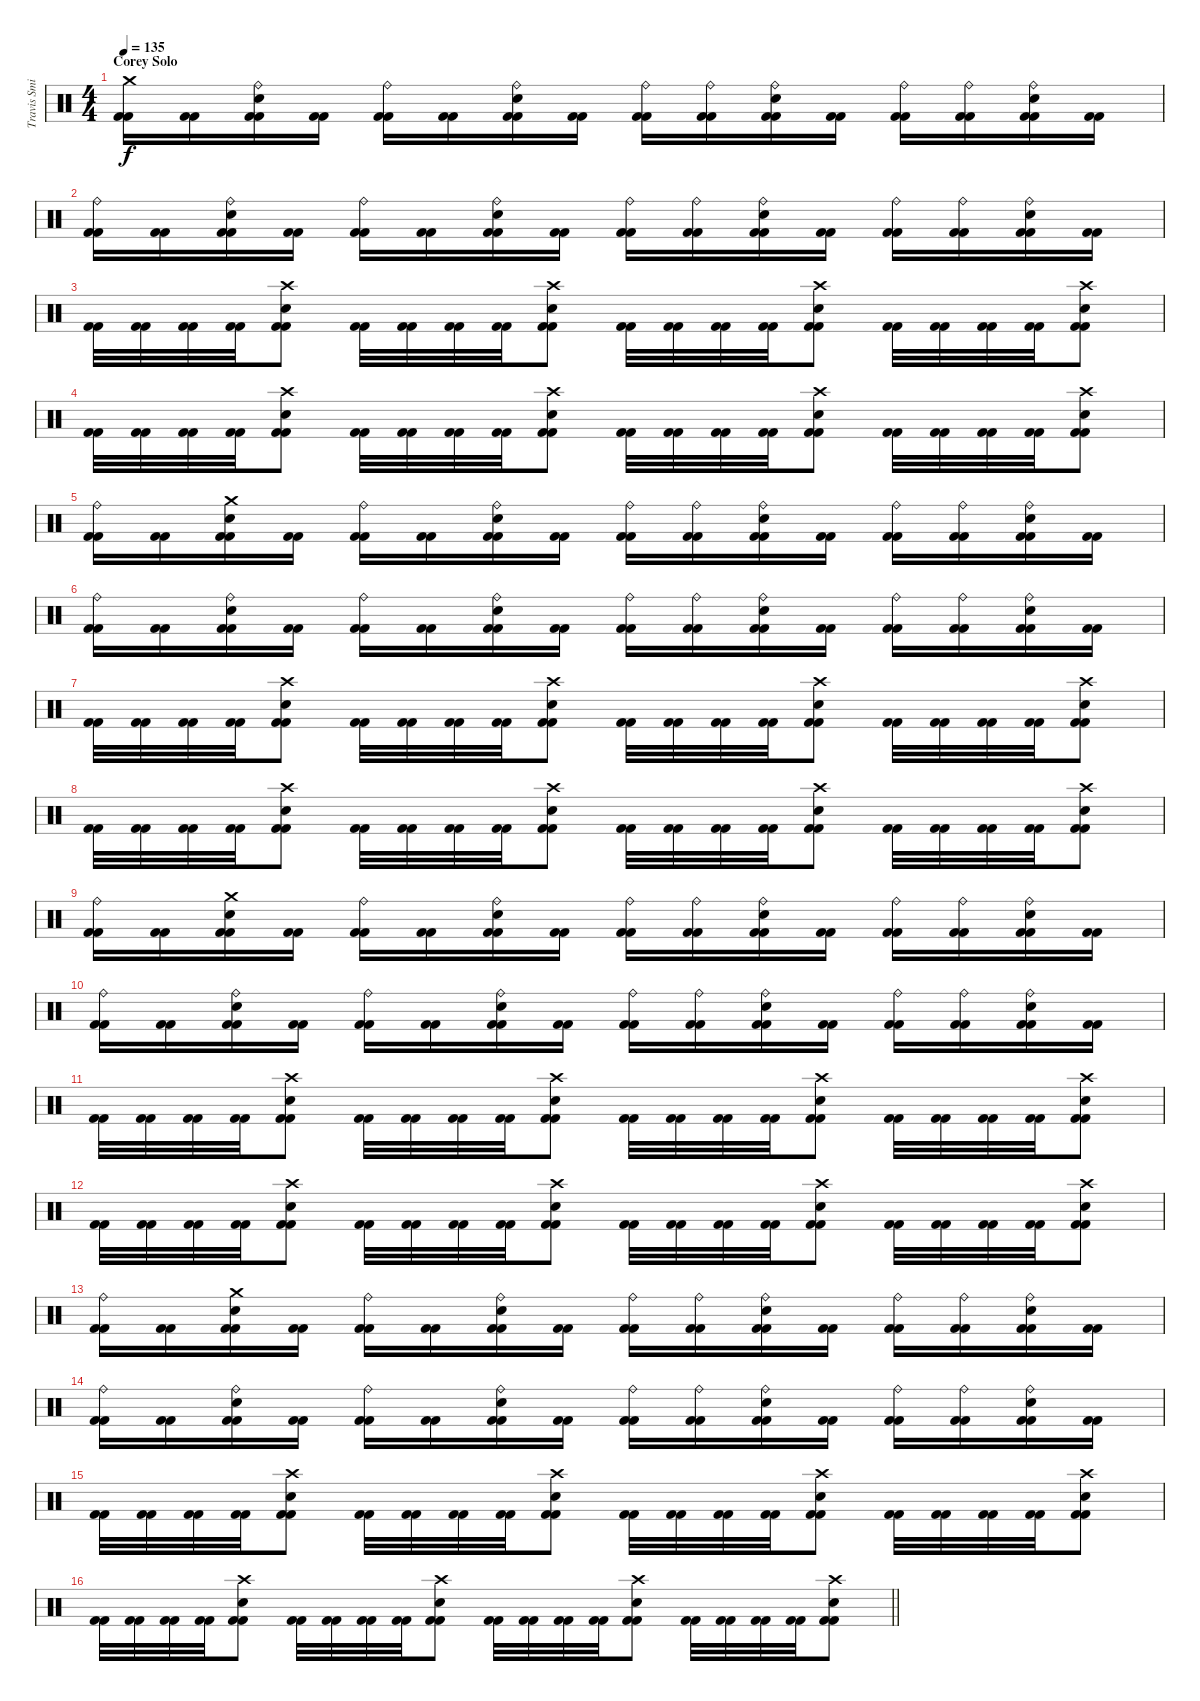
\track ("Travis Smith" "Travis Smi") {instrument percussion}
\staff {score}
\articulation defaults
\ts (4 4)
\section ("" "Corey Solo")
\tempo 135
\clef neutral
\ks c
("Crash medium (hit)" "Kick (hit) 2" "Kick (hit) 2").16{dy f} ("Kick (hit) 2" "Kick (hit) 2").16 ("Ride (bell)" "Electric Snare (hit)" "Kick (hit) 2" "Kick (hit) 2").16 ("Kick (hit) 2" "Kick (hit) 2").16 ("Ride (bell)" "Kick (hit) 2" "Kick (hit) 2").16 ("Kick (hit) 2" "Kick (hit) 2").16 ("Ride (bell)" "Electric Snare (hit)" "Kick (hit) 2" "Kick (hit) 2").16 ("Kick (hit) 2" "Kick (hit) 2").16 ("Ride (bell)" "Kick (hit) 2" "Kick (hit) 2").16 ("Ride (bell)" "Kick (hit) 2" "Kick (hit) 2").16 ("Ride (bell)" "Electric Snare (hit)" "Kick (hit) 2" "Kick (hit) 2").16 ("Kick (hit) 2" "Kick (hit) 2").16 ("Ride (bell)" "Kick (hit) 2" "Kick (hit) 2").16 ("Ride (bell)" "Kick (hit) 2" "Kick (hit) 2").16 ("Ride (bell)" "Electric Snare (hit)" "Kick (hit) 2" "Kick (hit) 2").16 ("Kick (hit) 2" "Kick (hit) 2").16 |
("Ride (bell)" "Kick (hit) 2" "Kick (hit) 2").16 ("Kick (hit) 2" "Kick (hit) 2").16 ("Ride (bell)" "Electric Snare (hit)" "Kick (hit) 2" "Kick (hit) 2").16 ("Kick (hit) 2" "Kick (hit) 2").16 ("Ride (bell)" "Kick (hit) 2" "Kick (hit) 2").16 ("Kick (hit) 2" "Kick (hit) 2").16 ("Ride (bell)" "Electric Snare (hit)" "Kick (hit) 2" "Kick (hit) 2").16 ("Kick (hit) 2" "Kick (hit) 2").16 ("Ride (bell)" "Kick (hit) 2" "Kick (hit) 2").16 ("Ride (bell)" "Kick (hit) 2" "Kick (hit) 2").16 ("Ride (bell)" "Electric Snare (hit)" "Kick (hit) 2" "Kick (hit) 2").16 ("Kick (hit) 2" "Kick (hit) 2").16 ("Ride (bell)" "Kick (hit) 2" "Kick (hit) 2").16 ("Ride (bell)" "Kick (hit) 2" "Kick (hit) 2").16 ("Ride (bell)" "Electric Snare (hit)" "Kick (hit) 2" "Kick (hit) 2").16 ("Kick (hit) 2" "Kick (hit) 2").16 |
("Kick (hit) 2" "Kick (hit) 2").32 ("Kick (hit) 2" "Kick (hit) 2").32 ("Kick (hit) 2" "Kick (hit) 2").32 ("Kick (hit) 2" "Kick (hit) 2").32 ("Crash high (hit)" "Electric Snare (hit)" "Kick (hit) 2" "Kick (hit) 2").8 ("Kick (hit) 2" "Kick (hit) 2").32 ("Kick (hit) 2" "Kick (hit) 2").32 ("Kick (hit) 2" "Kick (hit) 2").32 ("Kick (hit) 2" "Kick (hit) 2").32 ("Crash high (hit)" "Electric Snare (hit)" "Kick (hit) 2" "Kick (hit) 2").8 ("Kick (hit) 2" "Kick (hit) 2").32 ("Kick (hit) 2" "Kick (hit) 2").32 ("Kick (hit) 2" "Kick (hit) 2").32 ("Kick (hit) 2" "Kick (hit) 2").32 ("Crash high (hit)" "Electric Snare (hit)" "Kick (hit) 2" "Kick (hit) 2").8 ("Kick (hit) 2" "Kick (hit) 2").32 ("Kick (hit) 2" "Kick (hit) 2").32 ("Kick (hit) 2" "Kick (hit) 2").32 ("Kick (hit) 2" "Kick (hit) 2").32 ("Crash high (hit)" "Electric Snare (hit)" "Kick (hit) 2" "Kick (hit) 2").8 |
("Kick (hit) 2" "Kick (hit) 2").32 ("Kick (hit) 2" "Kick (hit) 2").32 ("Kick (hit) 2" "Kick (hit) 2").32 ("Kick (hit) 2" "Kick (hit) 2").32 ("Crash high (hit)" "Electric Snare (hit)" "Kick (hit) 2" "Kick (hit) 2").8 ("Kick (hit) 2" "Kick (hit) 2").32 ("Kick (hit) 2" "Kick (hit) 2").32 ("Kick (hit) 2" "Kick (hit) 2").32 ("Kick (hit) 2" "Kick (hit) 2").32 ("Crash high (hit)" "Electric Snare (hit)" "Kick (hit) 2" "Kick (hit) 2").8 ("Kick (hit) 2" "Kick (hit) 2").32 ("Kick (hit) 2" "Kick (hit) 2").32 ("Kick (hit) 2" "Kick (hit) 2").32 ("Kick (hit) 2" "Kick (hit) 2").32 ("Crash high (hit)" "Electric Snare (hit)" "Kick (hit) 2" "Kick (hit) 2").8 ("Kick (hit) 2" "Kick (hit) 2").32 ("Kick (hit) 2" "Kick (hit) 2").32 ("Kick (hit) 2" "Kick (hit) 2").32 ("Kick (hit) 2" "Kick (hit) 2").32 ("Crash high (hit)" "Electric Snare (hit)" "Kick (hit) 2" "Kick (hit) 2").8 |
("Ride (bell)" "Kick (hit) 2" "Kick (hit) 2").16 ("Kick (hit) 2" "Kick (hit) 2").16 ("Crash medium (hit)" "Electric Snare (hit)" "Kick (hit) 2" "Kick (hit) 2").16 ("Kick (hit) 2" "Kick (hit) 2").16 ("Ride (bell)" "Kick (hit) 2" "Kick (hit) 2").16 ("Kick (hit) 2" "Kick (hit) 2").16 ("Ride (bell)" "Electric Snare (hit)" "Kick (hit) 2" "Kick (hit) 2").16 ("Kick (hit) 2" "Kick (hit) 2").16 ("Ride (bell)" "Kick (hit) 2" "Kick (hit) 2").16 ("Ride (bell)" "Kick (hit) 2" "Kick (hit) 2").16 ("Ride (bell)" "Electric Snare (hit)" "Kick (hit) 2" "Kick (hit) 2").16 ("Kick (hit) 2" "Kick (hit) 2").16 ("Ride (bell)" "Kick (hit) 2" "Kick (hit) 2").16 ("Ride (bell)" "Kick (hit) 2" "Kick (hit) 2").16 ("Ride (bell)" "Electric Snare (hit)" "Kick (hit) 2" "Kick (hit) 2").16 ("Kick (hit) 2" "Kick (hit) 2").16 |
("Ride (bell)" "Kick (hit) 2" "Kick (hit) 2").16 ("Kick (hit) 2" "Kick (hit) 2").16 ("Ride (bell)" "Electric Snare (hit)" "Kick (hit) 2" "Kick (hit) 2").16 ("Kick (hit) 2" "Kick (hit) 2").16 ("Ride (bell)" "Kick (hit) 2" "Kick (hit) 2").16 ("Kick (hit) 2" "Kick (hit) 2").16 ("Ride (bell)" "Electric Snare (hit)" "Kick (hit) 2" "Kick (hit) 2").16 ("Kick (hit) 2" "Kick (hit) 2").16 ("Ride (bell)" "Kick (hit) 2" "Kick (hit) 2").16 ("Ride (bell)" "Kick (hit) 2" "Kick (hit) 2").16 ("Ride (bell)" "Electric Snare (hit)" "Kick (hit) 2" "Kick (hit) 2").16 ("Kick (hit) 2" "Kick (hit) 2").16 ("Ride (bell)" "Kick (hit) 2" "Kick (hit) 2").16 ("Ride (bell)" "Kick (hit) 2" "Kick (hit) 2").16 ("Ride (bell)" "Electric Snare (hit)" "Kick (hit) 2" "Kick (hit) 2").16 ("Kick (hit) 2" "Kick (hit) 2").16 |
("Kick (hit) 2" "Kick (hit) 2").32 ("Kick (hit) 2" "Kick (hit) 2").32 ("Kick (hit) 2" "Kick (hit) 2").32 ("Kick (hit) 2" "Kick (hit) 2").32 ("Crash high (hit)" "Electric Snare (hit)" "Kick (hit) 2" "Kick (hit) 2").8 ("Kick (hit) 2" "Kick (hit) 2").32 ("Kick (hit) 2" "Kick (hit) 2").32 ("Kick (hit) 2" "Kick (hit) 2").32 ("Kick (hit) 2" "Kick (hit) 2").32 ("Crash high (hit)" "Electric Snare (hit)" "Kick (hit) 2" "Kick (hit) 2").8 ("Kick (hit) 2" "Kick (hit) 2").32 ("Kick (hit) 2" "Kick (hit) 2").32 ("Kick (hit) 2" "Kick (hit) 2").32 ("Kick (hit) 2" "Kick (hit) 2").32 ("Crash high (hit)" "Electric Snare (hit)" "Kick (hit) 2" "Kick (hit) 2").8 ("Kick (hit) 2" "Kick (hit) 2").32 ("Kick (hit) 2" "Kick (hit) 2").32 ("Kick (hit) 2" "Kick (hit) 2").32 ("Kick (hit) 2" "Kick (hit) 2").32 ("Crash high (hit)" "Electric Snare (hit)" "Kick (hit) 2" "Kick (hit) 2").8 |
("Kick (hit) 2" "Kick (hit) 2").32 ("Kick (hit) 2" "Kick (hit) 2").32 ("Kick (hit) 2" "Kick (hit) 2").32 ("Kick (hit) 2" "Kick (hit) 2").32 ("Crash high (hit)" "Electric Snare (hit)" "Kick (hit) 2" "Kick (hit) 2").8 ("Kick (hit) 2" "Kick (hit) 2").32 ("Kick (hit) 2" "Kick (hit) 2").32 ("Kick (hit) 2" "Kick (hit) 2").32 ("Kick (hit) 2" "Kick (hit) 2").32 ("Crash high (hit)" "Electric Snare (hit)" "Kick (hit) 2" "Kick (hit) 2").8 ("Kick (hit) 2" "Kick (hit) 2").32 ("Kick (hit) 2" "Kick (hit) 2").32 ("Kick (hit) 2" "Kick (hit) 2").32 ("Kick (hit) 2" "Kick (hit) 2").32 ("Crash high (hit)" "Electric Snare (hit)" "Kick (hit) 2" "Kick (hit) 2").8 ("Kick (hit) 2" "Kick (hit) 2").32 ("Kick (hit) 2" "Kick (hit) 2").32 ("Kick (hit) 2" "Kick (hit) 2").32 ("Kick (hit) 2" "Kick (hit) 2").32 ("Crash high (hit)" "Electric Snare (hit)" "Kick (hit) 2" "Kick (hit) 2").8 |
("Ride (bell)" "Kick (hit) 2" "Kick (hit) 2").16 ("Kick (hit) 2" "Kick (hit) 2").16 ("Crash medium (hit)" "Electric Snare (hit)" "Kick (hit) 2" "Kick (hit) 2").16 ("Kick (hit) 2" "Kick (hit) 2").16 ("Ride (bell)" "Kick (hit) 2" "Kick (hit) 2").16 ("Kick (hit) 2" "Kick (hit) 2").16 ("Ride (bell)" "Electric Snare (hit)" "Kick (hit) 2" "Kick (hit) 2").16 ("Kick (hit) 2" "Kick (hit) 2").16 ("Ride (bell)" "Kick (hit) 2" "Kick (hit) 2").16 ("Ride (bell)" "Kick (hit) 2" "Kick (hit) 2").16 ("Ride (bell)" "Electric Snare (hit)" "Kick (hit) 2" "Kick (hit) 2").16 ("Kick (hit) 2" "Kick (hit) 2").16 ("Ride (bell)" "Kick (hit) 2" "Kick (hit) 2").16 ("Ride (bell)" "Kick (hit) 2" "Kick (hit) 2").16 ("Ride (bell)" "Electric Snare (hit)" "Kick (hit) 2" "Kick (hit) 2").16 ("Kick (hit) 2" "Kick (hit) 2").16 |
("Ride (bell)" "Kick (hit) 2" "Kick (hit) 2").16 ("Kick (hit) 2" "Kick (hit) 2").16 ("Ride (bell)" "Electric Snare (hit)" "Kick (hit) 2" "Kick (hit) 2").16 ("Kick (hit) 2" "Kick (hit) 2").16 ("Ride (bell)" "Kick (hit) 2" "Kick (hit) 2").16 ("Kick (hit) 2" "Kick (hit) 2").16 ("Ride (bell)" "Electric Snare (hit)" "Kick (hit) 2" "Kick (hit) 2").16 ("Kick (hit) 2" "Kick (hit) 2").16 ("Ride (bell)" "Kick (hit) 2" "Kick (hit) 2").16 ("Ride (bell)" "Kick (hit) 2" "Kick (hit) 2").16 ("Ride (bell)" "Electric Snare (hit)" "Kick (hit) 2" "Kick (hit) 2").16 ("Kick (hit) 2" "Kick (hit) 2").16 ("Ride (bell)" "Kick (hit) 2" "Kick (hit) 2").16 ("Ride (bell)" "Kick (hit) 2" "Kick (hit) 2").16 ("Ride (bell)" "Electric Snare (hit)" "Kick (hit) 2" "Kick (hit) 2").16 ("Kick (hit) 2" "Kick (hit) 2").16 |
("Kick (hit) 2" "Kick (hit) 2").32 ("Kick (hit) 2" "Kick (hit) 2").32 ("Kick (hit) 2" "Kick (hit) 2").32 ("Kick (hit) 2" "Kick (hit) 2").32 ("Crash high (hit)" "Electric Snare (hit)" "Kick (hit) 2" "Kick (hit) 2").8 ("Kick (hit) 2" "Kick (hit) 2").32 ("Kick (hit) 2" "Kick (hit) 2").32 ("Kick (hit) 2" "Kick (hit) 2").32 ("Kick (hit) 2" "Kick (hit) 2").32 ("Crash high (hit)" "Electric Snare (hit)" "Kick (hit) 2" "Kick (hit) 2").8 ("Kick (hit) 2" "Kick (hit) 2").32 ("Kick (hit) 2" "Kick (hit) 2").32 ("Kick (hit) 2" "Kick (hit) 2").32 ("Kick (hit) 2" "Kick (hit) 2").32 ("Crash high (hit)" "Electric Snare (hit)" "Kick (hit) 2" "Kick (hit) 2").8 ("Kick (hit) 2" "Kick (hit) 2").32 ("Kick (hit) 2" "Kick (hit) 2").32 ("Kick (hit) 2" "Kick (hit) 2").32 ("Kick (hit) 2" "Kick (hit) 2").32 ("Crash high (hit)" "Electric Snare (hit)" "Kick (hit) 2" "Kick (hit) 2").8 |
("Kick (hit) 2" "Kick (hit) 2").32 ("Kick (hit) 2" "Kick (hit) 2").32 ("Kick (hit) 2" "Kick (hit) 2").32 ("Kick (hit) 2" "Kick (hit) 2").32 ("Crash high (hit)" "Electric Snare (hit)" "Kick (hit) 2" "Kick (hit) 2").8 ("Kick (hit) 2" "Kick (hit) 2").32 ("Kick (hit) 2" "Kick (hit) 2").32 ("Kick (hit) 2" "Kick (hit) 2").32 ("Kick (hit) 2" "Kick (hit) 2").32 ("Crash high (hit)" "Electric Snare (hit)" "Kick (hit) 2" "Kick (hit) 2").8 ("Kick (hit) 2" "Kick (hit) 2").32 ("Kick (hit) 2" "Kick (hit) 2").32 ("Kick (hit) 2" "Kick (hit) 2").32 ("Kick (hit) 2" "Kick (hit) 2").32 ("Crash high (hit)" "Electric Snare (hit)" "Kick (hit) 2" "Kick (hit) 2").8 ("Kick (hit) 2" "Kick (hit) 2").32 ("Kick (hit) 2" "Kick (hit) 2").32 ("Kick (hit) 2" "Kick (hit) 2").32 ("Kick (hit) 2" "Kick (hit) 2").32 ("Crash high (hit)" "Electric Snare (hit)" "Kick (hit) 2" "Kick (hit) 2").8 |
("Ride (bell)" "Kick (hit) 2" "Kick (hit) 2").16 ("Kick (hit) 2" "Kick (hit) 2").16 ("Crash medium (hit)" "Electric Snare (hit)" "Kick (hit) 2" "Kick (hit) 2").16 ("Kick (hit) 2" "Kick (hit) 2").16 ("Ride (bell)" "Kick (hit) 2" "Kick (hit) 2").16 ("Kick (hit) 2" "Kick (hit) 2").16 ("Ride (bell)" "Electric Snare (hit)" "Kick (hit) 2" "Kick (hit) 2").16 ("Kick (hit) 2" "Kick (hit) 2").16 ("Ride (bell)" "Kick (hit) 2" "Kick (hit) 2").16 ("Ride (bell)" "Kick (hit) 2" "Kick (hit) 2").16 ("Ride (bell)" "Electric Snare (hit)" "Kick (hit) 2" "Kick (hit) 2").16 ("Kick (hit) 2" "Kick (hit) 2").16 ("Ride (bell)" "Kick (hit) 2" "Kick (hit) 2").16 ("Ride (bell)" "Kick (hit) 2" "Kick (hit) 2").16 ("Ride (bell)" "Electric Snare (hit)" "Kick (hit) 2" "Kick (hit) 2").16 ("Kick (hit) 2" "Kick (hit) 2").16 |
("Ride (bell)" "Kick (hit) 2" "Kick (hit) 2").16 ("Kick (hit) 2" "Kick (hit) 2").16 ("Ride (bell)" "Electric Snare (hit)" "Kick (hit) 2" "Kick (hit) 2").16 ("Kick (hit) 2" "Kick (hit) 2").16 ("Ride (bell)" "Kick (hit) 2" "Kick (hit) 2").16 ("Kick (hit) 2" "Kick (hit) 2").16 ("Ride (bell)" "Electric Snare (hit)" "Kick (hit) 2" "Kick (hit) 2").16 ("Kick (hit) 2" "Kick (hit) 2").16 ("Ride (bell)" "Kick (hit) 2" "Kick (hit) 2").16 ("Ride (bell)" "Kick (hit) 2" "Kick (hit) 2").16 ("Ride (bell)" "Electric Snare (hit)" "Kick (hit) 2" "Kick (hit) 2").16 ("Kick (hit) 2" "Kick (hit) 2").16 ("Ride (bell)" "Kick (hit) 2" "Kick (hit) 2").16 ("Ride (bell)" "Kick (hit) 2" "Kick (hit) 2").16 ("Ride (bell)" "Electric Snare (hit)" "Kick (hit) 2" "Kick (hit) 2").16 ("Kick (hit) 2" "Kick (hit) 2").16 |
("Kick (hit) 2" "Kick (hit) 2").32 ("Kick (hit) 2" "Kick (hit) 2").32 ("Kick (hit) 2" "Kick (hit) 2").32 ("Kick (hit) 2" "Kick (hit) 2").32 ("Crash high (hit)" "Electric Snare (hit)" "Kick (hit) 2" "Kick (hit) 2").8 ("Kick (hit) 2" "Kick (hit) 2").32 ("Kick (hit) 2" "Kick (hit) 2").32 ("Kick (hit) 2" "Kick (hit) 2").32 ("Kick (hit) 2" "Kick (hit) 2").32 ("Crash high (hit)" "Electric Snare (hit)" "Kick (hit) 2" "Kick (hit) 2").8 ("Kick (hit) 2" "Kick (hit) 2").32 ("Kick (hit) 2" "Kick (hit) 2").32 ("Kick (hit) 2" "Kick (hit) 2").32 ("Kick (hit) 2" "Kick (hit) 2").32 ("Crash high (hit)" "Electric Snare (hit)" "Kick (hit) 2" "Kick (hit) 2").8 ("Kick (hit) 2" "Kick (hit) 2").32 ("Kick (hit) 2" "Kick (hit) 2").32 ("Kick (hit) 2" "Kick (hit) 2").32 ("Kick (hit) 2" "Kick (hit) 2").32 ("Crash high (hit)" "Electric Snare (hit)" "Kick (hit) 2" "Kick (hit) 2").8 |
\barLineRight lightlight
("Kick (hit) 2" "Kick (hit) 2").32 ("Kick (hit) 2" "Kick (hit) 2").32 ("Kick (hit) 2" "Kick (hit) 2").32 ("Kick (hit) 2" "Kick (hit) 2").32 ("Crash high (hit)" "Electric Snare (hit)" "Kick (hit) 2" "Kick (hit) 2").8 ("Kick (hit) 2" "Kick (hit) 2").32 ("Kick (hit) 2" "Kick (hit) 2").32 ("Kick (hit) 2" "Kick (hit) 2").32 ("Kick (hit) 2" "Kick (hit) 2").32 ("Crash high (hit)" "Electric Snare (hit)" "Kick (hit) 2" "Kick (hit) 2").8 ("Kick (hit) 2" "Kick (hit) 2").32 ("Kick (hit) 2" "Kick (hit) 2").32 ("Kick (hit) 2" "Kick (hit) 2").32 ("Kick (hit) 2" "Kick (hit) 2").32 ("Crash high (hit)" "Electric Snare (hit)" "Kick (hit) 2" "Kick (hit) 2").8 ("Kick (hit) 2" "Kick (hit) 2").32 ("Kick (hit) 2" "Kick (hit) 2").32 ("Kick (hit) 2" "Kick (hit) 2").32 ("Kick (hit) 2" "Kick (hit) 2").32 ("Crash high (hit)" "Electric Snare (hit)" "Kick (hit) 2" "Kick (hit) 2").8
